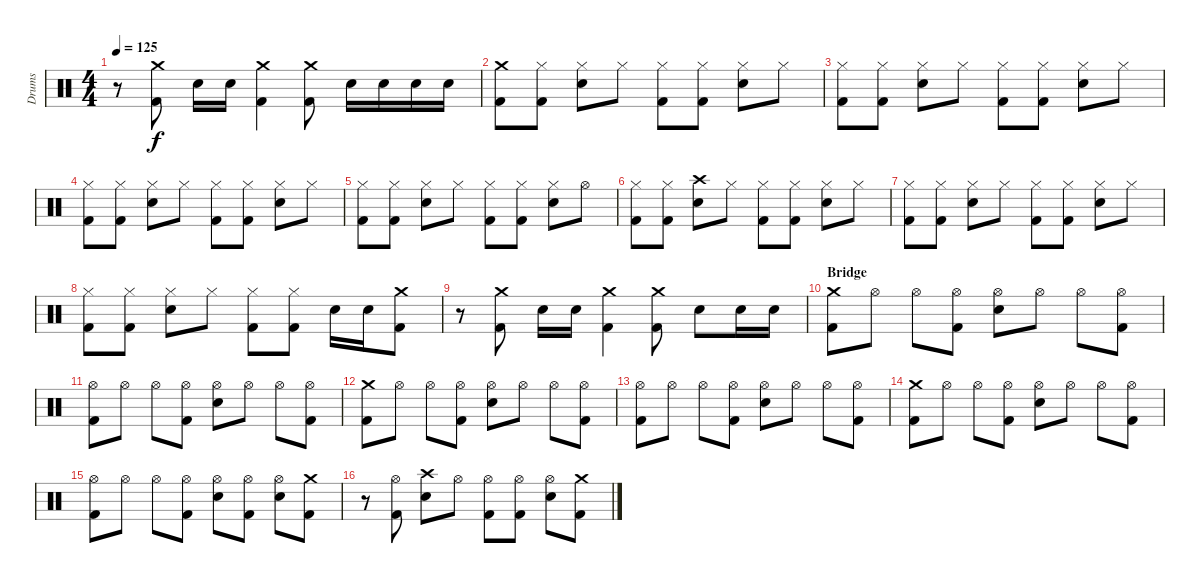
\track ("Drums" "Drums") {instrument percussion}
\staff {score}
\articulation defaults
\ts (4 4)
\tempo 125
\clef neutral
\ks c
r.8{dy f} ("Crash medium (hit)" "Kick (hit) 2").8 "Snare (hit) 2".16 "Snare (hit) 2".16 ("Crash medium (hit)" "Kick (hit) 2").4 ("Crash medium (hit)" "Kick (hit) 2").8 "Snare (hit) 2".16 "Snare (hit) 2".16 "Snare (hit) 2".16 "Snare (hit) 2".16 |
("Crash medium (hit)" "Kick (hit) 2").8 ("Hi-Hat (closed)" "Kick (hit) 2").8 ("Hi-Hat (closed)" "Snare (hit) 2").8 "Hi-Hat (closed)".8 ("Hi-Hat (closed)" "Kick (hit) 2").8 ("Hi-Hat (closed)" "Kick (hit) 2").8 ("Hi-Hat (closed)" "Snare (hit) 2").8 "Hi-Hat (closed)".8 |
("Hi-Hat (closed)" "Kick (hit) 2").8 ("Hi-Hat (closed)" "Kick (hit) 2").8 ("Hi-Hat (closed)" "Snare (hit) 2").8 "Hi-Hat (closed)".8 ("Hi-Hat (closed)" "Kick (hit) 2").8 ("Hi-Hat (closed)" "Kick (hit) 2").8 ("Hi-Hat (closed)" "Snare (hit) 2").8 "Hi-Hat (closed)".8 |
("Hi-Hat (closed)" "Kick (hit) 2").8 ("Hi-Hat (closed)" "Kick (hit) 2").8 ("Hi-Hat (closed)" "Snare (hit) 2").8 "Hi-Hat (closed)".8 ("Hi-Hat (closed)" "Kick (hit) 2").8 ("Hi-Hat (closed)" "Kick (hit) 2").8 ("Hi-Hat (closed)" "Snare (hit) 2").8 "Hi-Hat (closed)".8 |
("Hi-Hat (closed)" "Kick (hit) 2").8 ("Hi-Hat (closed)" "Kick (hit) 2").8 ("Hi-Hat (closed)" "Snare (hit) 2").8 "Hi-Hat (closed)".8 ("Hi-Hat (closed)" "Kick (hit) 2").8 ("Hi-Hat (closed)" "Kick (hit) 2").8 ("Hi-Hat (closed)" "Snare (hit) 2").8 "Hi-Hat (open)".8 |
("Hi-Hat (closed)" "Kick (hit) 2").8 ("Hi-Hat (closed)" "Kick (hit) 2").8 ("Crash high (hit)" "Snare (hit) 2").8 "Hi-Hat (closed)".8 ("Hi-Hat (closed)" "Kick (hit) 2").8 ("Hi-Hat (closed)" "Kick (hit) 2").8 ("Hi-Hat (closed)" "Snare (hit) 2").8 "Hi-Hat (closed)".8 |
("Hi-Hat (closed)" "Kick (hit) 2").8 ("Hi-Hat (closed)" "Kick (hit) 2").8 ("Hi-Hat (closed)" "Snare (hit) 2").8 "Hi-Hat (closed)".8 ("Hi-Hat (closed)" "Kick (hit) 2").8 ("Hi-Hat (closed)" "Kick (hit) 2").8 ("Hi-Hat (closed)" "Snare (hit) 2").8 "Hi-Hat (closed)".8 |
("Hi-Hat (closed)" "Kick (hit) 2").8 ("Hi-Hat (closed)" "Kick (hit) 2").8 ("Hi-Hat (closed)" "Snare (hit) 2").8 "Hi-Hat (closed)".8 ("Hi-Hat (closed)" "Kick (hit) 2").8 ("Hi-Hat (closed)" "Kick (hit) 2").8 "Snare (hit) 2".16 "Snare (hit) 2".16 ("Crash medium (hit)" "Kick (hit) 2").8 |
r.8 ("Crash medium (hit)" "Kick (hit) 2").8 "Snare (hit) 2".16 "Snare (hit) 2".16 ("Crash medium (hit)" "Kick (hit) 2").4 ("Crash medium (hit)" "Kick (hit) 2").8 "Snare (hit) 2".8 "Snare (hit) 2".16 "Snare (hit) 2".16 |
\section ("" "Bridge")
("Crash medium (hit)" "Kick (hit) 2").8 "Hi-Hat (open)".8 "Hi-Hat (open)".8 ("Hi-Hat (open)" "Kick (hit) 2").8 ("Hi-Hat (open)" "Snare (hit) 2").8 "Hi-Hat (open)".8 "Hi-Hat (open)".8 ("Hi-Hat (open)" "Kick (hit) 2").8 |
("Hi-Hat (open)" "Kick (hit) 2").8 "Hi-Hat (open)".8 "Hi-Hat (open)".8 ("Hi-Hat (open)" "Kick (hit) 2").8 ("Hi-Hat (open)" "Snare (hit) 2").8 "Hi-Hat (open)".8 "Hi-Hat (open)".8 ("Hi-Hat (open)" "Kick (hit) 2").8 |
("Crash medium (hit)" "Kick (hit) 2").8 "Hi-Hat (open)".8 "Hi-Hat (open)".8 ("Hi-Hat (open)" "Kick (hit) 2").8 ("Hi-Hat (open)" "Snare (hit) 2").8 "Hi-Hat (open)".8 "Hi-Hat (open)".8 ("Hi-Hat (open)" "Kick (hit) 2").8 |
("Hi-Hat (open)" "Kick (hit) 2").8 "Hi-Hat (open)".8 "Hi-Hat (open)".8 ("Hi-Hat (open)" "Kick (hit) 2").8 ("Hi-Hat (open)" "Snare (hit) 2").8 "Hi-Hat (open)".8 "Hi-Hat (open)".8 ("Hi-Hat (open)" "Kick (hit) 2").8 |
("Crash medium (hit)" "Kick (hit) 2").8 "Hi-Hat (open)".8 "Hi-Hat (open)".8 ("Hi-Hat (open)" "Kick (hit) 2").8 ("Hi-Hat (open)" "Snare (hit) 2").8 "Hi-Hat (open)".8 "Hi-Hat (open)".8 ("Hi-Hat (open)" "Kick (hit) 2").8 |
("Hi-Hat (open)" "Kick (hit) 2").8 "Hi-Hat (open)".8 "Hi-Hat (open)".8 ("Hi-Hat (open)" "Kick (hit) 2").8 ("Hi-Hat (open)" "Snare (hit) 2").8 ("Hi-Hat (open)" "Kick (hit) 2").8 ("Hi-Hat (open)" "Snare (hit) 2").8 ("Crash medium (hit)" "Kick (hit) 2").8 |
r.8 ("Hi-Hat (open)" "Kick (hit) 2").8 ("Crash high (hit)" "Snare (hit) 2").8 "Hi-Hat (open)".8 ("Hi-Hat (open)" "Kick (hit) 2").8 ("Hi-Hat (open)" "Kick (hit) 2").8 ("Hi-Hat (open)" "Snare (hit) 2").8 ("Crash medium (hit)" "Kick (hit) 2").8
